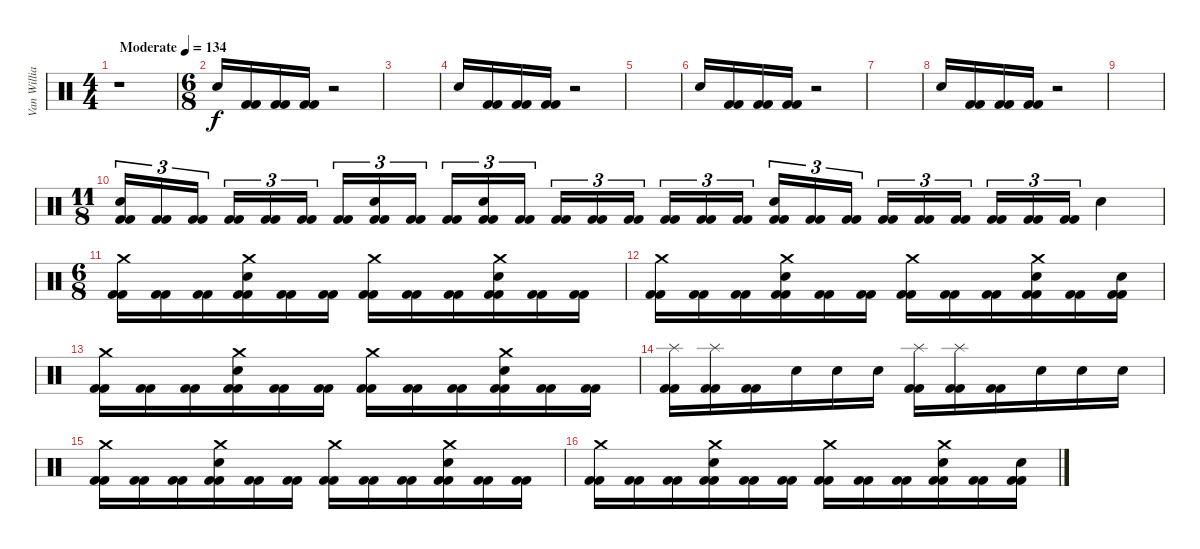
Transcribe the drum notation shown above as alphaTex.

\track ("Van Williams" "Van Willia") {instrument percussion}
\staff {score}
\articulation defaults
\ts (4 4)
\tempo (134 "Moderate")
\clef neutral
\ks c
r.1{dy f volume 0} |
\ts (6 8)
"Electric Snare (hit)".16{volume 8} ("Kick (hit) 2" "Kick (hit) 2").16 ("Kick (hit) 2" "Kick (hit) 2").16 ("Kick (hit) 2" "Kick (hit) 2").16 r.2 |
|
"Electric Snare (hit)".16 ("Kick (hit) 2" "Kick (hit) 2").16 ("Kick (hit) 2" "Kick (hit) 2").16 ("Kick (hit) 2" "Kick (hit) 2").16 r.2 |
|
"Electric Snare (hit)".16 ("Kick (hit) 2" "Kick (hit) 2").16 ("Kick (hit) 2" "Kick (hit) 2").16 ("Kick (hit) 2" "Kick (hit) 2").16 r.2 |
|
"Electric Snare (hit)".16 ("Kick (hit) 2" "Kick (hit) 2").16 ("Kick (hit) 2" "Kick (hit) 2").16 ("Kick (hit) 2" "Kick (hit) 2").16 r.2 |
|
\ts (11 8)
("Electric Snare (hit)" "Kick (hit) 2" "Kick (hit) 2").16{tu (3 2) volume 16} ("Kick (hit) 2" "Kick (hit) 2").16{tu (3 2)} ("Kick (hit) 2" "Kick (hit) 2").16{tu (3 2)} ("Kick (hit) 2" "Kick (hit) 2").16{tu (3 2)} ("Kick (hit) 2" "Kick (hit) 2").16{tu (3 2)} ("Kick (hit) 2" "Kick (hit) 2").16{tu (3 2)} ("Kick (hit) 2" "Kick (hit) 2").16{tu (3 2)} ("Electric Snare (hit)" "Kick (hit) 2" "Kick (hit) 2").16{tu (3 2)} ("Kick (hit) 2" "Kick (hit) 2").16{tu (3 2)} ("Kick (hit) 2" "Kick (hit) 2").16{tu (3 2)} ("Electric Snare (hit)" "Kick (hit) 2" "Kick (hit) 2").16{tu (3 2)} ("Kick (hit) 2" "Kick (hit) 2").16{tu (3 2)} ("Kick (hit) 2" "Kick (hit) 2").16{tu (3 2)} ("Kick (hit) 2" "Kick (hit) 2").16{tu (3 2)} ("Kick (hit) 2" "Kick (hit) 2").16{tu (3 2)} ("Kick (hit) 2" "Kick (hit) 2").16{tu (3 2)} ("Kick (hit) 2" "Kick (hit) 2").16{tu (3 2)} ("Kick (hit) 2" "Kick (hit) 2").16{tu (3 2)} ("Electric Snare (hit)" "Kick (hit) 2" "Kick (hit) 2").16{tu (3 2)} ("Kick (hit) 2" "Kick (hit) 2").16{tu (3 2)} ("Kick (hit) 2" "Kick (hit) 2").16{tu (3 2)} ("Kick (hit) 2" "Kick (hit) 2").16{tu (3 2)} ("Kick (hit) 2" "Kick (hit) 2").16{tu (3 2)} ("Kick (hit) 2" "Kick (hit) 2").16{tu (3 2)} ("Kick (hit) 2" "Kick (hit) 2").16{tu (3 2)} ("Kick (hit) 2" "Kick (hit) 2").16{tu (3 2)} ("Kick (hit) 2" "Kick (hit) 2").16{tu (3 2)} "Electric Snare (hit)".4 |
\ts (6 8)
("Crash medium (hit)" "Kick (hit) 2" "Kick (hit) 2").16 ("Kick (hit) 2" "Kick (hit) 2").16 ("Kick (hit) 2" "Kick (hit) 2").16 ("Crash medium (hit)" "Electric Snare (hit)" "Kick (hit) 2" "Kick (hit) 2").16 ("Kick (hit) 2" "Kick (hit) 2").16 ("Kick (hit) 2" "Kick (hit) 2").16 ("Crash medium (hit)" "Kick (hit) 2" "Kick (hit) 2").16 ("Kick (hit) 2" "Kick (hit) 2").16 ("Kick (hit) 2" "Kick (hit) 2").16 ("Crash medium (hit)" "Electric Snare (hit)" "Kick (hit) 2" "Kick (hit) 2").16 ("Kick (hit) 2" "Kick (hit) 2").16 ("Kick (hit) 2" "Kick (hit) 2").16 |
("Crash medium (hit)" "Kick (hit) 2" "Kick (hit) 2").16 ("Kick (hit) 2" "Kick (hit) 2").16 ("Kick (hit) 2" "Kick (hit) 2").16 ("Crash medium (hit)" "Electric Snare (hit)" "Kick (hit) 2" "Kick (hit) 2").16 ("Kick (hit) 2" "Kick (hit) 2").16 ("Kick (hit) 2" "Kick (hit) 2").16 ("Crash medium (hit)" "Kick (hit) 2" "Kick (hit) 2").16 ("Kick (hit) 2" "Kick (hit) 2").16 ("Kick (hit) 2" "Kick (hit) 2").16 ("Crash medium (hit)" "Electric Snare (hit)" "Kick (hit) 2" "Kick (hit) 2").16 ("Kick (hit) 2" "Kick (hit) 2").16 ("Electric Snare (hit)" "Kick (hit) 2" "Kick (hit) 2").16 |
("Crash medium (hit)" "Kick (hit) 2" "Kick (hit) 2").16 ("Kick (hit) 2" "Kick (hit) 2").16 ("Kick (hit) 2" "Kick (hit) 2").16 ("Crash medium (hit)" "Electric Snare (hit)" "Kick (hit) 2" "Kick (hit) 2").16 ("Kick (hit) 2" "Kick (hit) 2").16 ("Kick (hit) 2" "Kick (hit) 2").16 ("Crash medium (hit)" "Kick (hit) 2" "Kick (hit) 2").16 ("Kick (hit) 2" "Kick (hit) 2").16 ("Kick (hit) 2" "Kick (hit) 2").16 ("Crash medium (hit)" "Electric Snare (hit)" "Kick (hit) 2" "Kick (hit) 2").16 ("Kick (hit) 2" "Kick (hit) 2").16 ("Kick (hit) 2" "Kick (hit) 2").16 |
("Splash (hit)" "Kick (hit) 2" "Kick (hit) 2").16 ("Splash (hit)" "Kick (hit) 2" "Kick (hit) 2").16 ("Kick (hit) 2" "Kick (hit) 2").16 "Electric Snare (hit)".16 "Electric Snare (hit)".16 "Electric Snare (hit)".16 ("Splash (hit)" "Kick (hit) 2" "Kick (hit) 2").16 ("Splash (hit)" "Kick (hit) 2" "Kick (hit) 2").16 ("Kick (hit) 2" "Kick (hit) 2").16 "Electric Snare (hit)".16 "Electric Snare (hit)".16 "Electric Snare (hit)".16 |
("Crash medium (hit)" "Kick (hit) 2" "Kick (hit) 2").16 ("Kick (hit) 2" "Kick (hit) 2").16 ("Kick (hit) 2" "Kick (hit) 2").16 ("Crash medium (hit)" "Electric Snare (hit)" "Kick (hit) 2" "Kick (hit) 2").16 ("Kick (hit) 2" "Kick (hit) 2").16 ("Kick (hit) 2" "Kick (hit) 2").16 ("Crash medium (hit)" "Kick (hit) 2" "Kick (hit) 2").16 ("Kick (hit) 2" "Kick (hit) 2").16 ("Kick (hit) 2" "Kick (hit) 2").16 ("Crash medium (hit)" "Electric Snare (hit)" "Kick (hit) 2" "Kick (hit) 2").16 ("Kick (hit) 2" "Kick (hit) 2").16 ("Kick (hit) 2" "Kick (hit) 2").16 |
("Crash medium (hit)" "Kick (hit) 2" "Kick (hit) 2").16 ("Kick (hit) 2" "Kick (hit) 2").16 ("Kick (hit) 2" "Kick (hit) 2").16 ("Crash medium (hit)" "Electric Snare (hit)" "Kick (hit) 2" "Kick (hit) 2").16 ("Kick (hit) 2" "Kick (hit) 2").16 ("Kick (hit) 2" "Kick (hit) 2").16 ("Crash medium (hit)" "Kick (hit) 2" "Kick (hit) 2").16 ("Kick (hit) 2" "Kick (hit) 2").16 ("Kick (hit) 2" "Kick (hit) 2").16 ("Crash medium (hit)" "Electric Snare (hit)" "Kick (hit) 2" "Kick (hit) 2").16 ("Kick (hit) 2" "Kick (hit) 2").16 ("Electric Snare (hit)" "Kick (hit) 2" "Kick (hit) 2").16
